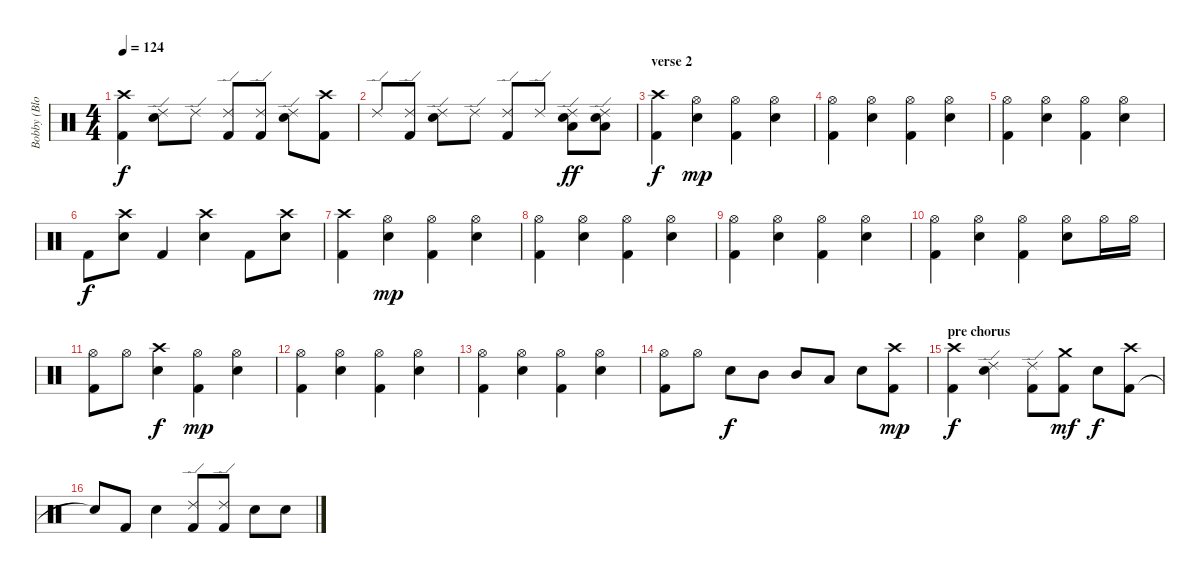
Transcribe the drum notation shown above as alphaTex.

\track ("Bobby (Blotz) Blotzer" "Bobby (Blo") {instrument percussion}
\staff {score}
\articulation defaults
\ts (4 4)
\tempo 124
\clef neutral
\ks c
("Kick (hit) 2" "Crash high (hit)").4{dy f} ("Ride (edge) 2" "Snare (hit) 2").8 "Ride (edge) 2".8 ("Kick (hit) 2" "Ride (edge) 2").8 ("Kick (hit) 2" "Ride (edge) 2").8 ("Ride (edge) 2" "Snare (hit) 2").8 ("Kick (hit) 2" "Crash high (hit)").8 |
"Ride (edge) 2".8 ("Kick (hit) 2" "Ride (edge) 2").8 ("Ride (edge) 2" "Snare (hit) 2").8 "Ride (edge) 2".8 ("Kick (hit) 2" "Ride (edge) 2").8 "Ride (edge) 2".8 ("Ride (edge) 2" "Low Tom (hit)" "Snare (hit) 2").8{dy ff} ("Ride (edge) 2" "Low Tom (hit)" "Snare (hit) 2").8 |
\section ("" "verse 2")
("Kick (hit) 2" "Crash high (hit)").4{dy f} ("Hi-Hat (open)" "Snare (hit) 2").4{dy mp} ("Kick (hit) 2" "Hi-Hat (open)").4 ("Hi-Hat (open)" "Snare (hit) 2").4 |
("Kick (hit) 2" "Hi-Hat (open)").4 ("Hi-Hat (open)" "Snare (hit) 2").4 ("Kick (hit) 2" "Hi-Hat (open)").4 ("Hi-Hat (open)" "Snare (hit) 2").4 |
("Kick (hit) 2" "Hi-Hat (open)").4 ("Hi-Hat (open)" "Snare (hit) 2").4 ("Kick (hit) 2" "Hi-Hat (open)").4 ("Hi-Hat (open)" "Snare (hit) 2").4 |
"Kick (hit) 2".8{dy f} ("Crash high (hit)" "Snare (hit) 2").8 "Kick (hit) 2".4 ("Crash high (hit)" "Snare (hit) 2").4 "Kick (hit) 2".8 ("Crash high (hit)" "Snare (hit) 2").8 |
("Kick (hit) 2" "Crash high (hit)").4 ("Hi-Hat (open)" "Snare (hit) 2").4{dy mp} ("Kick (hit) 2" "Hi-Hat (open)").4 ("Hi-Hat (open)" "Snare (hit) 2").4 |
("Kick (hit) 2" "Hi-Hat (open)").4 ("Hi-Hat (open)" "Snare (hit) 2").4 ("Kick (hit) 2" "Hi-Hat (open)").4 ("Hi-Hat (open)" "Snare (hit) 2").4 |
("Kick (hit) 2" "Hi-Hat (open)").4 ("Hi-Hat (open)" "Snare (hit) 2").4 ("Kick (hit) 2" "Hi-Hat (open)").4 ("Hi-Hat (open)" "Snare (hit) 2").4 |
("Kick (hit) 2" "Hi-Hat (open)").4 ("Hi-Hat (open)" "Snare (hit) 2").4 ("Kick (hit) 2" "Hi-Hat (open)").4 ("Hi-Hat (open)" "Snare (hit) 2").8 "Hi-Hat (open)".16 "Hi-Hat (open)".16 |
("Kick (hit) 2" "Hi-Hat (open)").8 "Hi-Hat (open)".8 ("Crash high (hit)" "Snare (hit) 2").4{dy f} ("Kick (hit) 2" "Hi-Hat (open)").4{dy mp} ("Hi-Hat (open)" "Snare (hit) 2").4 |
("Kick (hit) 2" "Hi-Hat (open)").4 ("Hi-Hat (open)" "Snare (hit) 2").4 ("Kick (hit) 2" "Hi-Hat (open)").4 ("Hi-Hat (open)" "Snare (hit) 2").4 |
("Kick (hit) 2" "Hi-Hat (open)").4 ("Hi-Hat (open)" "Snare (hit) 2").4 ("Kick (hit) 2" "Hi-Hat (open)").4 ("Hi-Hat (open)" "Snare (hit) 2").4 |
("Kick (hit) 2" "Hi-Hat (open)").8 "Hi-Hat (open)".8 "Snare (hit) 2".8{dy f} "Mid Tom (hit)".8 "Mid Tom (hit)".8 "Low Tom (hit)".8 "Snare (hit) 2".8 ("Kick (hit) 2" "Crash high (hit)").8{dy mp} |
\section ("" "pre chorus")
("Kick (hit) 2" "Crash high (hit)").4{dy f} ("Ride (edge) 2" "Snare (hit) 2").4 ("Kick (hit) 2" "Ride (edge) 2").8 ("Kick (hit) 2" "Crash medium (hit)").8{dy mf} "Snare (hit) 2".8{dy f} ("Kick (hit) 2" "Crash high (hit)").8 |
"Snare (hit)"{t}.8 "Kick (hit) 2".8 "Snare (hit) 2".4 ("Kick (hit) 2" "Ride (edge) 2").8 ("Kick (hit) 2" "Ride (edge) 2").8 "Snare (hit) 2".8 "Snare (hit) 2".8
